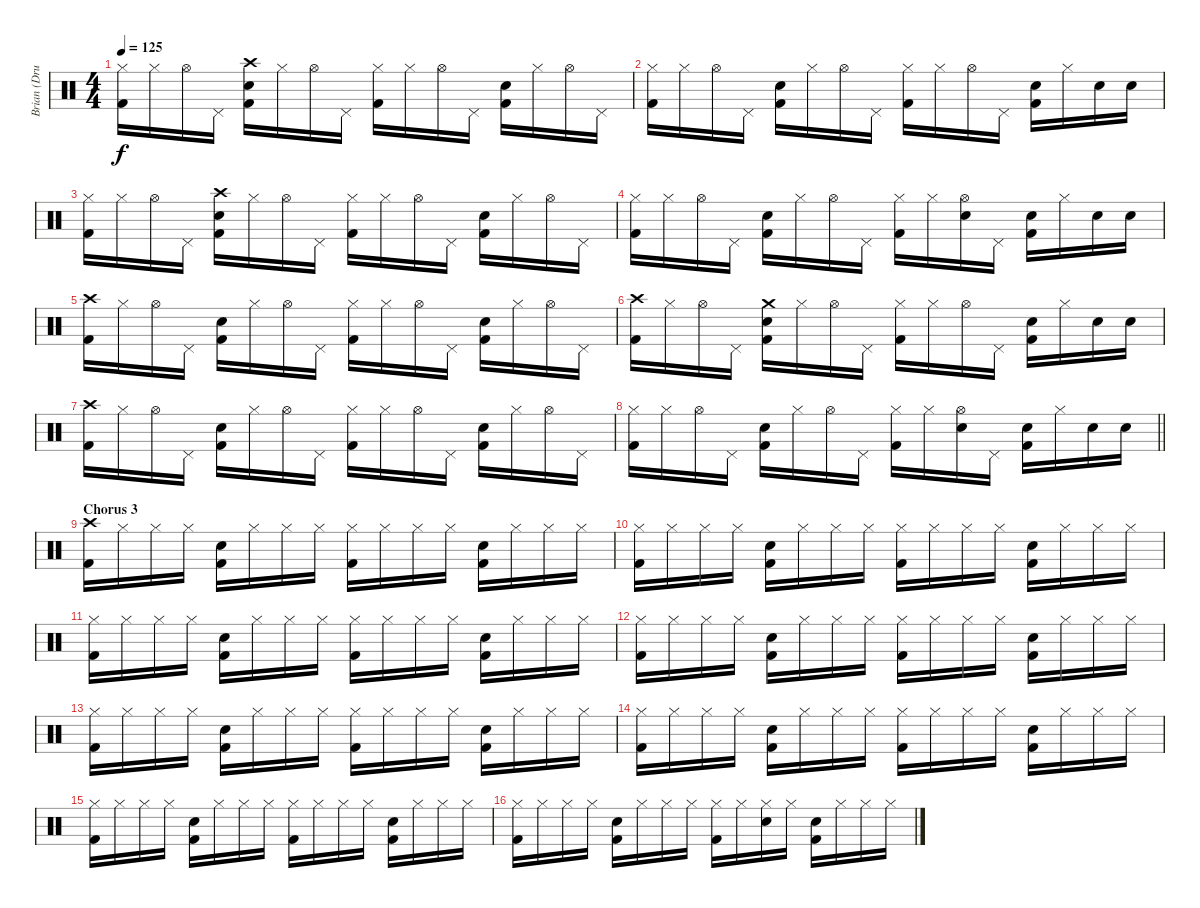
\track ("Brian (Drums)" "Brian (Dru") {instrument percussion}
\staff {score}
\articulation defaults
\ts (4 4)
\tempo 125
\clef neutral
\ks c
("Hi-Hat (closed)" "Kick (hit) 2").16{dy f} "Hi-Hat (closed)".16 "Hi-Hat (open)".16 "Pedal Hi-Hat (hit)".16 ("Crash high (hit)" "Electric Snare (hit)" "Kick (hit) 2").16 "Hi-Hat (closed)".16 "Hi-Hat (open)".16 "Pedal Hi-Hat (hit)".16 ("Hi-Hat (closed)" "Kick (hit) 2").16 "Hi-Hat (closed)".16 "Hi-Hat (open)".16 "Pedal Hi-Hat (hit)".16 ("Electric Snare (hit)" "Kick (hit) 2").16 "Hi-Hat (closed)".16 "Hi-Hat (open)".16 "Pedal Hi-Hat (hit)".16 |
("Hi-Hat (closed)" "Kick (hit) 2").16 "Hi-Hat (closed)".16 "Hi-Hat (open)".16 "Pedal Hi-Hat (hit)".16 ("Electric Snare (hit)" "Kick (hit) 2").16 "Hi-Hat (closed)".16 "Hi-Hat (open)".16 "Pedal Hi-Hat (hit)".16 ("Hi-Hat (closed)" "Kick (hit) 2").16 "Hi-Hat (closed)".16 "Hi-Hat (open)".16 "Pedal Hi-Hat (hit)".16 ("Electric Snare (hit)" "Kick (hit) 2").16 "Hi-Hat (closed)".16 "Electric Snare (hit)".16 "Electric Snare (hit)".16 |
("Hi-Hat (closed)" "Kick (hit) 2").16 "Hi-Hat (closed)".16 "Hi-Hat (open)".16 "Pedal Hi-Hat (hit)".16 ("Crash high (hit)" "Electric Snare (hit)" "Kick (hit) 2").16 "Hi-Hat (closed)".16 "Hi-Hat (open)".16 "Pedal Hi-Hat (hit)".16 ("Hi-Hat (closed)" "Kick (hit) 2").16 "Hi-Hat (closed)".16 "Hi-Hat (open)".16 "Pedal Hi-Hat (hit)".16 ("Electric Snare (hit)" "Kick (hit) 2").16 "Hi-Hat (closed)".16 "Hi-Hat (open)".16 "Pedal Hi-Hat (hit)".16 |
("Hi-Hat (closed)" "Kick (hit) 2").16 "Hi-Hat (closed)".16 "Hi-Hat (open)".16 "Pedal Hi-Hat (hit)".16 ("Electric Snare (hit)" "Kick (hit) 2").16 "Hi-Hat (closed)".16 "Hi-Hat (open)".16 "Pedal Hi-Hat (hit)".16 ("Hi-Hat (closed)" "Kick (hit) 2").16 "Hi-Hat (closed)".16 ("Hi-Hat (open)" "Electric Snare (hit)").16 "Pedal Hi-Hat (hit)".16 ("Electric Snare (hit)" "Kick (hit) 2").16 "Hi-Hat (closed)".16 "Electric Snare (hit)".16 "Electric Snare (hit)".16 |
("Crash high (hit)" "Kick (hit) 2").16 "Hi-Hat (closed)".16 "Hi-Hat (open)".16 "Pedal Hi-Hat (hit)".16 ("Electric Snare (hit)" "Kick (hit) 2").16 "Hi-Hat (closed)".16 "Hi-Hat (open)".16 "Pedal Hi-Hat (hit)".16 ("Hi-Hat (closed)" "Kick (hit) 2").16 "Hi-Hat (closed)".16 "Hi-Hat (open)".16 "Pedal Hi-Hat (hit)".16 ("Electric Snare (hit)" "Kick (hit) 2").16 "Hi-Hat (closed)".16 "Hi-Hat (open)".16 "Pedal Hi-Hat (hit)".16 |
("Crash high (hit)" "Kick (hit) 2").16 "Hi-Hat (closed)".16 "Hi-Hat (open)".16 "Pedal Hi-Hat (hit)".16 ("Crash medium (hit)" "Electric Snare (hit)" "Kick (hit) 2").16 "Hi-Hat (closed)".16 "Hi-Hat (open)".16 "Pedal Hi-Hat (hit)".16 ("Hi-Hat (closed)" "Kick (hit) 2").16 "Hi-Hat (closed)".16 "Hi-Hat (open)".16 "Pedal Hi-Hat (hit)".16 ("Electric Snare (hit)" "Kick (hit) 2").16 "Hi-Hat (closed)".16 "Electric Snare (hit)".16 "Electric Snare (hit)".16 |
("Crash high (hit)" "Kick (hit) 2").16 "Hi-Hat (closed)".16 "Hi-Hat (open)".16 "Pedal Hi-Hat (hit)".16 ("Electric Snare (hit)" "Kick (hit) 2").16 "Hi-Hat (closed)".16 "Hi-Hat (open)".16 "Pedal Hi-Hat (hit)".16 ("Hi-Hat (closed)" "Kick (hit) 2").16 "Hi-Hat (closed)".16 "Hi-Hat (open)".16 "Pedal Hi-Hat (hit)".16 ("Electric Snare (hit)" "Kick (hit) 2").16 "Hi-Hat (closed)".16 "Hi-Hat (open)".16 "Pedal Hi-Hat (hit)".16 |
\barLineRight lightlight
("Hi-Hat (closed)" "Kick (hit) 2").16 "Hi-Hat (closed)".16 "Hi-Hat (open)".16 "Pedal Hi-Hat (hit)".16 ("Electric Snare (hit)" "Kick (hit) 2").16 "Hi-Hat (closed)".16 "Hi-Hat (open)".16 "Pedal Hi-Hat (hit)".16 ("Hi-Hat (closed)" "Kick (hit) 2").16 "Hi-Hat (closed)".16 ("Hi-Hat (open)" "Electric Snare (hit)").16 "Pedal Hi-Hat (hit)".16 ("Electric Snare (hit)" "Kick (hit) 2").16 "Hi-Hat (closed)".16 "Electric Snare (hit)".16 "Electric Snare (hit)".16 |
\section ("" "Chorus 3")
("Crash high (hit)" "Kick (hit) 2").16 "Hi-Hat (closed)".16 "Hi-Hat (closed)".16 "Hi-Hat (closed)".16 ("Electric Snare (hit)" "Kick (hit) 2").16 "Hi-Hat (closed)".16 "Hi-Hat (closed)".16 "Hi-Hat (closed)".16 ("Hi-Hat (closed)" "Kick (hit) 2").16 "Hi-Hat (closed)".16 "Hi-Hat (closed)".16 "Hi-Hat (closed)".16 ("Electric Snare (hit)" "Kick (hit) 2").16 "Hi-Hat (closed)".16 "Hi-Hat (closed)".16 "Hi-Hat (closed)".16 |
("Hi-Hat (closed)" "Kick (hit) 2").16 "Hi-Hat (closed)".16 "Hi-Hat (closed)".16 "Hi-Hat (closed)".16 ("Electric Snare (hit)" "Kick (hit) 2").16 "Hi-Hat (closed)".16 "Hi-Hat (closed)".16 "Hi-Hat (closed)".16 ("Hi-Hat (closed)" "Kick (hit) 2").16 "Hi-Hat (closed)".16 "Hi-Hat (closed)".16 "Hi-Hat (closed)".16 ("Electric Snare (hit)" "Kick (hit) 2").16 "Hi-Hat (closed)".16 "Hi-Hat (closed)".16 "Hi-Hat (closed)".16 |
("Hi-Hat (closed)" "Kick (hit) 2").16 "Hi-Hat (closed)".16 "Hi-Hat (closed)".16 "Hi-Hat (closed)".16 ("Electric Snare (hit)" "Kick (hit) 2").16 "Hi-Hat (closed)".16 "Hi-Hat (closed)".16 "Hi-Hat (closed)".16 ("Hi-Hat (closed)" "Kick (hit) 2").16 "Hi-Hat (closed)".16 "Hi-Hat (closed)".16 "Hi-Hat (closed)".16 ("Electric Snare (hit)" "Kick (hit) 2").16 "Hi-Hat (closed)".16 "Hi-Hat (closed)".16 "Hi-Hat (closed)".16 |
("Hi-Hat (closed)" "Kick (hit) 2").16 "Hi-Hat (closed)".16 "Hi-Hat (closed)".16 "Hi-Hat (closed)".16 ("Electric Snare (hit)" "Kick (hit) 2").16 "Hi-Hat (closed)".16 "Hi-Hat (closed)".16 "Hi-Hat (closed)".16 ("Hi-Hat (closed)" "Kick (hit) 2").16 "Hi-Hat (closed)".16 "Hi-Hat (closed)".16 "Hi-Hat (closed)".16 ("Electric Snare (hit)" "Kick (hit) 2").16 "Hi-Hat (closed)".16 "Hi-Hat (closed)".16 "Hi-Hat (closed)".16 |
("Hi-Hat (closed)" "Kick (hit) 2").16 "Hi-Hat (closed)".16 "Hi-Hat (closed)".16 "Hi-Hat (closed)".16 ("Electric Snare (hit)" "Kick (hit) 2").16 "Hi-Hat (closed)".16 "Hi-Hat (closed)".16 "Hi-Hat (closed)".16 ("Hi-Hat (closed)" "Kick (hit) 2").16 "Hi-Hat (closed)".16 "Hi-Hat (closed)".16 "Hi-Hat (closed)".16 ("Electric Snare (hit)" "Kick (hit) 2").16 "Hi-Hat (closed)".16 "Hi-Hat (closed)".16 "Hi-Hat (closed)".16 |
("Hi-Hat (closed)" "Kick (hit) 2").16 "Hi-Hat (closed)".16 "Hi-Hat (closed)".16 "Hi-Hat (closed)".16 ("Electric Snare (hit)" "Kick (hit) 2").16 "Hi-Hat (closed)".16 "Hi-Hat (closed)".16 "Hi-Hat (closed)".16 ("Hi-Hat (closed)" "Kick (hit) 2").16 "Hi-Hat (closed)".16 "Hi-Hat (closed)".16 "Hi-Hat (closed)".16 ("Electric Snare (hit)" "Kick (hit) 2").16 "Hi-Hat (closed)".16 "Hi-Hat (closed)".16 "Hi-Hat (closed)".16 |
("Hi-Hat (closed)" "Kick (hit) 2").16 "Hi-Hat (closed)".16 "Hi-Hat (closed)".16 "Hi-Hat (closed)".16 ("Electric Snare (hit)" "Kick (hit) 2").16 "Hi-Hat (closed)".16 "Hi-Hat (closed)".16 "Hi-Hat (closed)".16 ("Hi-Hat (closed)" "Kick (hit) 2").16 "Hi-Hat (closed)".16 "Hi-Hat (closed)".16 "Hi-Hat (closed)".16 ("Electric Snare (hit)" "Kick (hit) 2").16 "Hi-Hat (closed)".16 "Hi-Hat (closed)".16 "Hi-Hat (closed)".16 |
("Hi-Hat (closed)" "Kick (hit) 2").16 "Hi-Hat (closed)".16 "Hi-Hat (closed)".16 "Hi-Hat (closed)".16 ("Electric Snare (hit)" "Kick (hit) 2").16 "Hi-Hat (closed)".16 "Hi-Hat (closed)".16 "Hi-Hat (closed)".16 ("Hi-Hat (closed)" "Kick (hit) 2").16 "Hi-Hat (closed)".16 ("Hi-Hat (closed)" "Electric Snare (hit)").16 "Hi-Hat (closed)".16 ("Electric Snare (hit)" "Kick (hit) 2").16 "Hi-Hat (closed)".16 "Hi-Hat (closed)".16 "Hi-Hat (closed)".16
